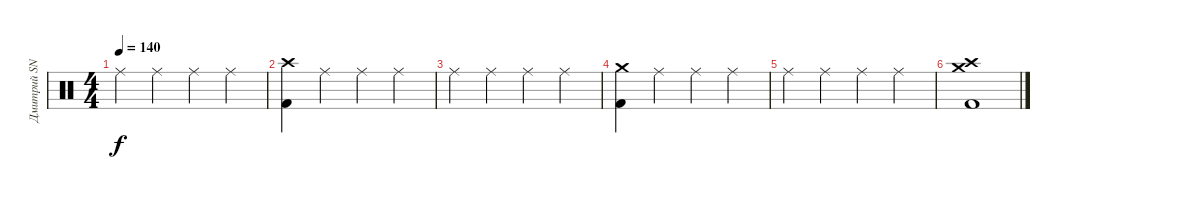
\track ("Дмитрий SNAKE Хакимов" "Дмитрий SN") {instrument percussion}
\staff {score}
\articulation defaults
\ts (4 4)
\tempo 140
\clef neutral
\ks c "Ride (middle)".4{dy f} "Ride (middle)".4 "Ride (middle)".4 "Ride (middle)".4
|
("Crash high (hit)" "Kick (hit) 2").4 "Ride (middle)".4 "Ride (middle)".4 "Ride (middle)".4 |
"Ride (middle)".4 "Ride (middle)".4 "Ride (middle)".4 "Ride (middle)".4 |
("Crash medium (hit)" "Kick (hit) 2").4 "Ride (middle)".4 "Ride (middle)".4 "Ride (middle)".4 |
"Ride (middle)".4 "Ride (middle)".4 "Ride (middle)".4 "Ride (middle)".4 |
("Crash high (hit)" "Crash medium (hit)" "Kick (hit) 2").1
